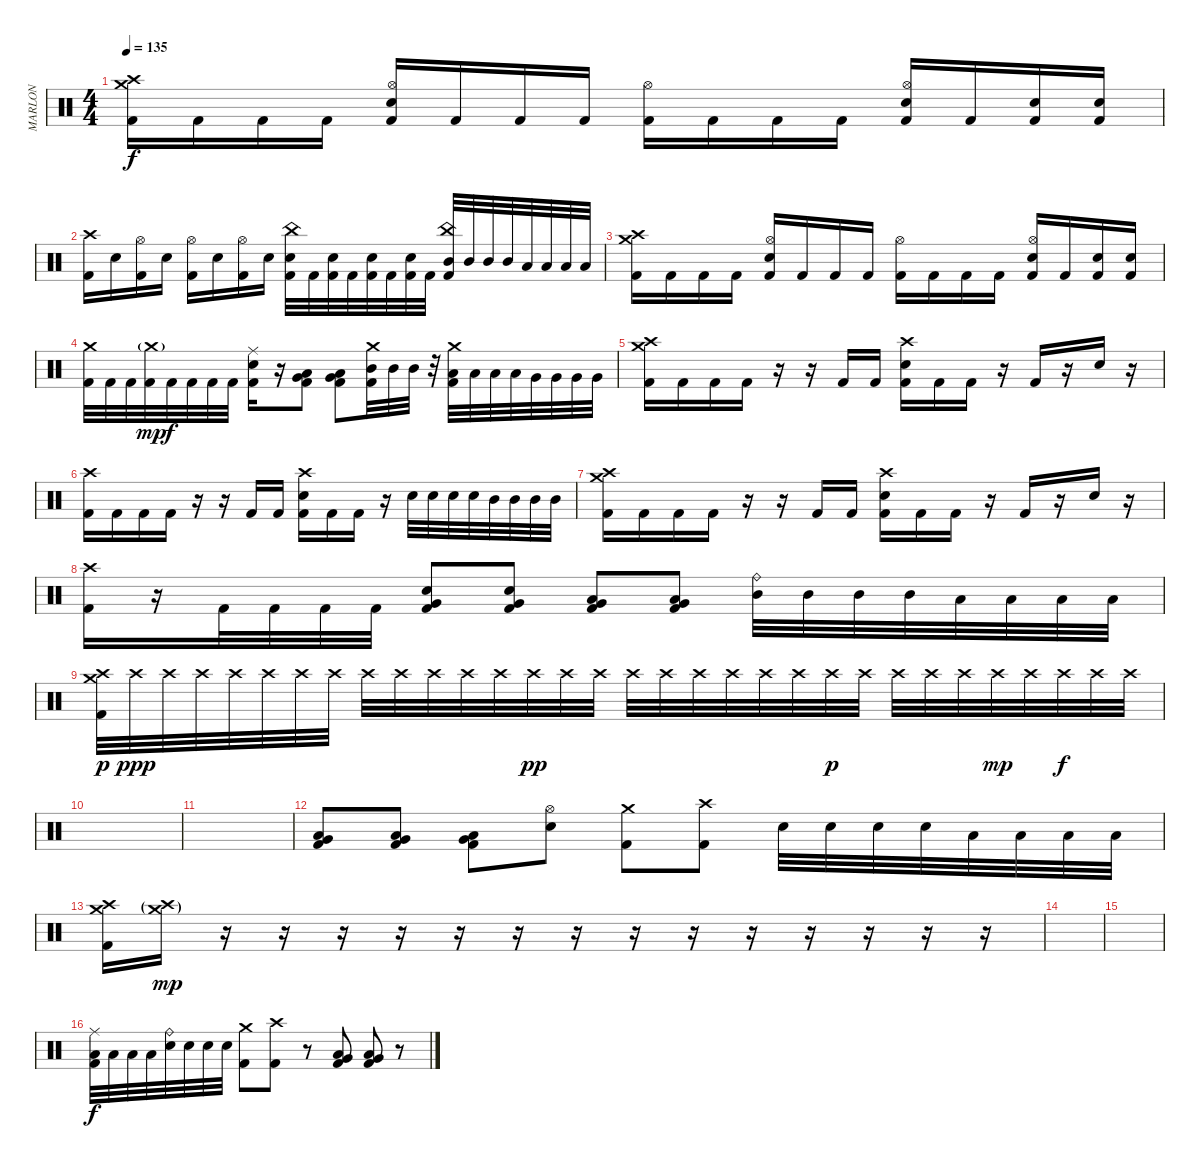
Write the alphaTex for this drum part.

\track ("MARLON" "MARLON") {instrument percussion}
\staff {score}
\articulation defaults
\ts (4 4)
\tempo 135
\clef neutral
\ks c
("Crash high (hit)" "Crash medium (hit)" "Kick (hit) 2").16{dy f} "Kick (hit) 2".16 "Kick (hit) 2".16 "Kick (hit) 2".16 ("Hi-Hat (open)" "Electric Snare (hit)" "Kick (hit) 2").16 "Kick (hit) 2".16 "Kick (hit) 2".16 "Kick (hit) 2".16 ("Hi-Hat (open)" "Kick (hit) 2").16 "Kick (hit) 2".16 "Kick (hit) 2".16 "Kick (hit) 2".16 ("Hi-Hat (open)" "Electric Snare (hit)" "Kick (hit) 2").16 "Kick (hit) 2".16 ("Electric Snare (hit)" "Kick (hit) 2").16 ("Electric Snare (hit)" "Kick (hit) 2").16 |
("Crash high (hit)" "Kick (hit) 2").16 "Electric Snare (hit)".16 ("Hi-Hat (open)" "Kick (hit) 2").16 "Electric Snare (hit)".16 ("Hi-Hat (open)" "Kick (hit) 2").16 "Electric Snare (hit)".16 ("Hi-Hat (open)" "Kick (hit) 2").16 "Electric Snare (hit)".16 ("China (hit)" "Electric Snare (hit)" "Kick (hit) 2").32 "Kick (hit) 2".32 ("Electric Snare (hit)" "Kick (hit) 2").32 "Kick (hit) 2".32 ("Electric Snare (hit)" "Kick (hit) 2").32 "Kick (hit) 2".32 ("Electric Snare (hit)" "Kick (hit) 2").32 "Kick (hit) 2".32 ("China (hit)" "Mid Tom (hit)" "Kick (hit) 2").32 "Mid Tom (hit)".32 "Mid Tom (hit)".32 "Mid Tom (hit)".32 "Low Tom (hit)".32 "Low Tom (hit)".32 "Low Tom (hit)".32 "Low Tom (hit)".32 |
("Crash high (hit)" "Crash medium (hit)" "Kick (hit) 2").16 "Kick (hit) 2".16 "Kick (hit) 2".16 "Kick (hit) 2".16 ("Hi-Hat (open)" "Electric Snare (hit)" "Kick (hit) 2").16 "Kick (hit) 2".16 "Kick (hit) 2".16 "Kick (hit) 2".16 ("Hi-Hat (open)" "Kick (hit) 2").16 "Kick (hit) 2".16 "Kick (hit) 2".16 "Kick (hit) 2".16 ("Hi-Hat (open)" "Electric Snare (hit)" "Kick (hit) 2").16 "Kick (hit) 2".16 ("Electric Snare (hit)" "Kick (hit) 2").16 ("Electric Snare (hit)" "Kick (hit) 2").16 |
("Crash medium (hit)" "Kick (hit) 2").32 "Kick (hit) 2".32 "Kick (hit) 2".32 ("Crash medium (hit)"{g} "Kick (hit) 2").32{dy mp} "Kick (hit) 2".32{dy f} "Kick (hit) 2".32 "Kick (hit) 2".32 "Kick (hit) 2".32 ("Ride (middle)" "Electric Snare (hit)" "Kick (hit) 2").16 r.16 ("Low Tom (hit)" "Very Low Tom (hit)" "Kick (hit) 2").8 ("Low Tom (hit)" "Very Low Tom (hit)" "Kick (hit) 2").8 ("Crash medium (hit)" "Mid Tom (hit)" "Kick (hit) 2").32 "Mid Tom (hit)".32 "Mid Tom (hit)".32 r.32 ("Crash medium (hit)" "Low Tom (hit)" "Kick (hit) 2").32 "Low Tom (hit)".32 "Low Tom (hit)".32 "Low Tom (hit)".32 "Very Low Tom (hit)".32 "Very Low Tom (hit)".32 "Very Low Tom (hit)".32 "Very Low Tom (hit)".32 |
("Crash high (hit)" "Crash medium (hit)" "Kick (hit) 2").16 "Kick (hit) 2".16 "Kick (hit) 2".16 "Kick (hit) 2".16 r.16 r.16 "Kick (hit) 2".16 "Kick (hit) 2".16 ("Crash high (hit)" "Electric Snare (hit)" "Kick (hit) 2").16 "Kick (hit) 2".16 "Kick (hit) 2".16 r.16 "Kick (hit) 2".16 r.16 "Electric Snare (hit)".16 r.16 |
("Crash high (hit)" "Kick (hit) 2").16 "Kick (hit) 2".16 "Kick (hit) 2".16 "Kick (hit) 2".16 r.16 r.16 "Kick (hit) 2".16 "Kick (hit) 2".16 ("Crash high (hit)" "Electric Snare (hit)" "Kick (hit) 2").16 "Kick (hit) 2".16 "Kick (hit) 2".16 r.16 "Electric Snare (hit)".32 "Electric Snare (hit)".32 "Electric Snare (hit)".32 "Electric Snare (hit)".32 "Mid Tom (hit)".32 "Mid Tom (hit)".32 "Mid Tom (hit)".32 "Mid Tom (hit)".32 |
("Crash high (hit)" "Crash medium (hit)" "Kick (hit) 2").16 "Kick (hit) 2".16 "Kick (hit) 2".16 "Kick (hit) 2".16 r.16 r.16 "Kick (hit) 2".16 "Kick (hit) 2".16 ("Crash high (hit)" "Electric Snare (hit)" "Kick (hit) 2").16 "Kick (hit) 2".16 "Kick (hit) 2".16 r.16 "Kick (hit) 2".16 r.16 "Electric Snare (hit)".16 r.16 |
("Crash high (hit)" "Kick (hit) 2").16 r.16 "Kick (hit) 2".32 "Kick (hit) 2".32 "Kick (hit) 2".32 "Kick (hit) 2".32 ("Very Low Tom (hit)" "Electric Snare (hit)" "Kick (hit) 2").8 ("Very Low Tom (hit)" "Electric Snare (hit)" "Kick (hit) 2").8 ("Very Low Tom (hit)" "Low Tom (hit)" "Kick (hit) 2").8 ("Very Low Tom (hit)" "Low Tom (hit)" "Kick (hit) 2").8 ("Ride (bell)" "Mid Tom (hit)").32 "Mid Tom (hit)".32 "Mid Tom (hit)".32 "Mid Tom (hit)".32 "Low Tom (hit)".32 "Low Tom (hit)".32 "Low Tom (hit)".32 "Low Tom (hit)".32 |
("Crash high (hit)" "Crash medium (hit)" "Kick (hit) 2").32{dy p} "Crash high (hit)".32{dy ppp} "Crash high (hit)".32 "Crash high (hit)".32 "Crash high (hit)".32 "Crash high (hit)".32 "Crash high (hit)".32 "Crash high (hit)".32 "Crash high (hit)".32 "Crash high (hit)".32 "Crash high (hit)".32 "Crash high (hit)".32 "Crash high (hit)".32 "Crash high (hit)".32{dy pp} "Crash high (hit)".32 "Crash high (hit)".32 "Crash high (hit)".32 "Crash high (hit)".32 "Crash high (hit)".32 "Crash high (hit)".32 "Crash high (hit)".32 "Crash high (hit)".32 "Crash high (hit)".32{dy p} "Crash high (hit)".32 "Crash high (hit)".32 "Crash high (hit)".32 "Crash high (hit)".32 "Crash high (hit)".32{dy mp} "Crash high (hit)".32 "Crash high (hit)".32{dy f} "Crash high (hit)".32 "Crash high (hit)".32 |
|
|
("Low Tom (hit)" "Very Low Tom (hit)" "Kick (hit) 2").8 ("Low Tom (hit)" "Very Low Tom (hit)" "Kick (hit) 2").8 ("Low Tom (hit)" "Very Low Tom (hit)" "Kick (hit) 2").8 ("Hi-Hat (open)" "Electric Snare (hit)").8 ("Crash medium (hit)" "Kick (hit) 2").8 ("Crash high (hit)" "Kick (hit) 2").8 "Electric Snare (hit)".32 "Electric Snare (hit)".32 "Electric Snare (hit)".32 "Electric Snare (hit)".32 "Low Tom (hit)".32 "Low Tom (hit)".32 "Low Tom (hit)".32 "Low Tom (hit)".32 |
("Crash high (hit)" "Crash medium (hit)" "Kick (hit) 2").16 ("Crash high (hit)"{g} "Crash medium (hit)"{g}).16{dy mp} r.16 r.16 r.16 r.16 r.16 r.16 r.16 r.16 r.16 r.16 r.16 r.16 r.16 r.16 |
|
|
("Ride (middle)" "Low Tom (hit)" "Kick (hit) 2").32{dy f} "Low Tom (hit)".32 "Low Tom (hit)".32 "Low Tom (hit)".32 ("Ride (bell)" "Electric Snare (hit)").32 "Electric Snare (hit)".32 "Electric Snare (hit)".32 "Electric Snare (hit)".32 ("Crash medium (hit)" "Kick (hit) 2").8 ("Crash high (hit)" "Kick (hit) 2").8 r.8 ("Low Tom (hit)" "Very Low Tom (hit)" "Kick (hit) 2").8 ("Low Tom (hit)" "Very Low Tom (hit)" "Kick (hit) 2").8 r.8
